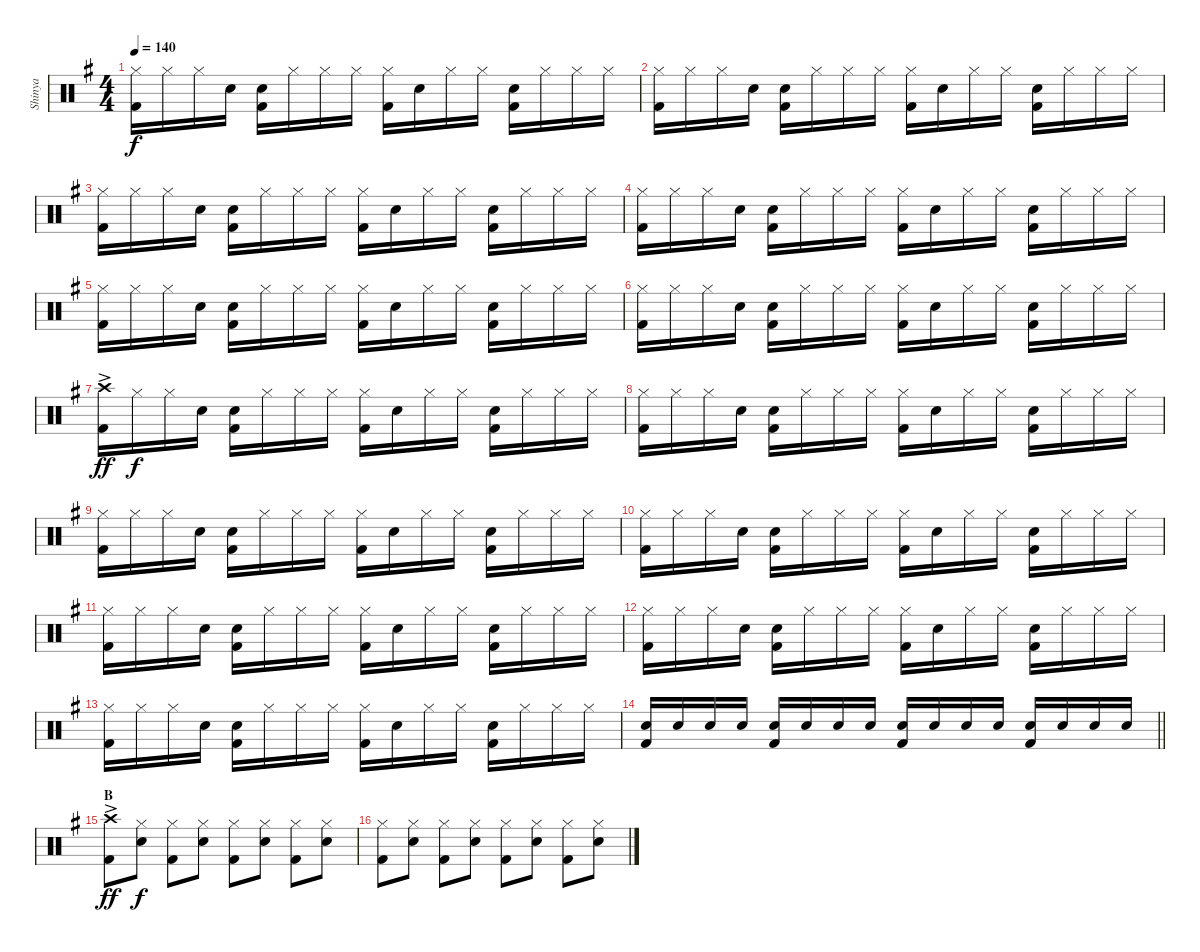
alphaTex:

\track ("Shinya" "Shinya") {instrument percussion}
\staff {score}
\articulation defaults
\ts (4 4)
\tempo 140
\clef neutral
\ks g
("Hi-Hat (closed)" "Kick (hit) 2").16{dy f} "Hi-Hat (closed)".16 "Hi-Hat (closed)".16 "Snare (hit) 2".16 ("Snare (hit) 2" "Kick (hit) 2").16 "Hi-Hat (closed)".16 "Hi-Hat (closed)".16 "Hi-Hat (closed)".16 ("Hi-Hat (closed)" "Kick (hit) 2").16 "Snare (hit) 2".16 "Hi-Hat (closed)".16 "Hi-Hat (closed)".16 ("Snare (hit) 2" "Kick (hit) 2").16 "Hi-Hat (closed)".16 "Hi-Hat (closed)".16 "Hi-Hat (closed)".16 |
("Hi-Hat (closed)" "Kick (hit) 2").16 "Hi-Hat (closed)".16 "Hi-Hat (closed)".16 "Snare (hit) 2".16 ("Snare (hit) 2" "Kick (hit) 2").16 "Hi-Hat (closed)".16 "Hi-Hat (closed)".16 "Hi-Hat (closed)".16 ("Hi-Hat (closed)" "Kick (hit) 2").16 "Snare (hit) 2".16 "Hi-Hat (closed)".16 "Hi-Hat (closed)".16 ("Snare (hit) 2" "Kick (hit) 2").16 "Hi-Hat (closed)".16 "Hi-Hat (closed)".16 "Hi-Hat (closed)".16 |
("Hi-Hat (closed)" "Kick (hit) 2").16 "Hi-Hat (closed)".16 "Hi-Hat (closed)".16 "Snare (hit) 2".16 ("Snare (hit) 2" "Kick (hit) 2").16 "Hi-Hat (closed)".16 "Hi-Hat (closed)".16 "Hi-Hat (closed)".16 ("Hi-Hat (closed)" "Kick (hit) 2").16 "Snare (hit) 2".16 "Hi-Hat (closed)".16 "Hi-Hat (closed)".16 ("Snare (hit) 2" "Kick (hit) 2").16 "Hi-Hat (closed)".16 "Hi-Hat (closed)".16 "Hi-Hat (closed)".16 |
("Hi-Hat (closed)" "Kick (hit) 2").16 "Hi-Hat (closed)".16 "Hi-Hat (closed)".16 "Snare (hit) 2".16 ("Snare (hit) 2" "Kick (hit) 2").16 "Hi-Hat (closed)".16 "Hi-Hat (closed)".16 "Hi-Hat (closed)".16 ("Hi-Hat (closed)" "Kick (hit) 2").16 "Snare (hit) 2".16 "Hi-Hat (closed)".16 "Hi-Hat (closed)".16 ("Snare (hit) 2" "Kick (hit) 2").16 "Hi-Hat (closed)".16 "Hi-Hat (closed)".16 "Hi-Hat (closed)".16 |
("Hi-Hat (closed)" "Kick (hit) 2").16 "Hi-Hat (closed)".16 "Hi-Hat (closed)".16 "Snare (hit) 2".16 ("Snare (hit) 2" "Kick (hit) 2").16 "Hi-Hat (closed)".16 "Hi-Hat (closed)".16 "Hi-Hat (closed)".16 ("Hi-Hat (closed)" "Kick (hit) 2").16 "Snare (hit) 2".16 "Hi-Hat (closed)".16 "Hi-Hat (closed)".16 ("Snare (hit) 2" "Kick (hit) 2").16 "Hi-Hat (closed)".16 "Hi-Hat (closed)".16 "Hi-Hat (closed)".16 |
("Hi-Hat (closed)" "Kick (hit) 2").16 "Hi-Hat (closed)".16 "Hi-Hat (closed)".16 "Snare (hit) 2".16 ("Snare (hit) 2" "Kick (hit) 2").16 "Hi-Hat (closed)".16 "Hi-Hat (closed)".16 "Hi-Hat (closed)".16 ("Hi-Hat (closed)" "Kick (hit) 2").16 "Snare (hit) 2".16 "Hi-Hat (closed)".16 "Hi-Hat (closed)".16 ("Snare (hit) 2" "Kick (hit) 2").16 "Hi-Hat (closed)".16 "Hi-Hat (closed)".16 "Hi-Hat (closed)".16 |
("Crash high (hit)"{ac} "Kick (hit) 2").16{dy ff} "Hi-Hat (closed)".16{dy f} "Hi-Hat (closed)".16 "Snare (hit) 2".16 ("Snare (hit) 2" "Kick (hit) 2").16 "Hi-Hat (closed)".16 "Hi-Hat (closed)".16 "Hi-Hat (closed)".16 ("Hi-Hat (closed)" "Kick (hit) 2").16 "Snare (hit) 2".16 "Hi-Hat (closed)".16 "Hi-Hat (closed)".16 ("Snare (hit) 2" "Kick (hit) 2").16 "Hi-Hat (closed)".16 "Hi-Hat (closed)".16 "Hi-Hat (closed)".16 |
("Hi-Hat (closed)" "Kick (hit) 2").16 "Hi-Hat (closed)".16 "Hi-Hat (closed)".16 "Snare (hit) 2".16 ("Snare (hit) 2" "Kick (hit) 2").16 "Hi-Hat (closed)".16 "Hi-Hat (closed)".16 "Hi-Hat (closed)".16 ("Hi-Hat (closed)" "Kick (hit) 2").16 "Snare (hit) 2".16 "Hi-Hat (closed)".16 "Hi-Hat (closed)".16 ("Snare (hit) 2" "Kick (hit) 2").16 "Hi-Hat (closed)".16 "Hi-Hat (closed)".16 "Hi-Hat (closed)".16 |
("Hi-Hat (closed)" "Kick (hit) 2").16 "Hi-Hat (closed)".16 "Hi-Hat (closed)".16 "Snare (hit) 2".16 ("Snare (hit) 2" "Kick (hit) 2").16 "Hi-Hat (closed)".16 "Hi-Hat (closed)".16 "Hi-Hat (closed)".16 ("Hi-Hat (closed)" "Kick (hit) 2").16 "Snare (hit) 2".16 "Hi-Hat (closed)".16 "Hi-Hat (closed)".16 ("Snare (hit) 2" "Kick (hit) 2").16 "Hi-Hat (closed)".16 "Hi-Hat (closed)".16 "Hi-Hat (closed)".16 |
("Hi-Hat (closed)" "Kick (hit) 2").16 "Hi-Hat (closed)".16 "Hi-Hat (closed)".16 "Snare (hit) 2".16 ("Snare (hit) 2" "Kick (hit) 2").16 "Hi-Hat (closed)".16 "Hi-Hat (closed)".16 "Hi-Hat (closed)".16 ("Hi-Hat (closed)" "Kick (hit) 2").16 "Snare (hit) 2".16 "Hi-Hat (closed)".16 "Hi-Hat (closed)".16 ("Snare (hit) 2" "Kick (hit) 2").16 "Hi-Hat (closed)".16 "Hi-Hat (closed)".16 "Hi-Hat (closed)".16 |
("Hi-Hat (closed)" "Kick (hit) 2").16 "Hi-Hat (closed)".16 "Hi-Hat (closed)".16 "Snare (hit) 2".16 ("Snare (hit) 2" "Kick (hit) 2").16 "Hi-Hat (closed)".16 "Hi-Hat (closed)".16 "Hi-Hat (closed)".16 ("Hi-Hat (closed)" "Kick (hit) 2").16 "Snare (hit) 2".16 "Hi-Hat (closed)".16 "Hi-Hat (closed)".16 ("Snare (hit) 2" "Kick (hit) 2").16 "Hi-Hat (closed)".16 "Hi-Hat (closed)".16 "Hi-Hat (closed)".16 |
("Hi-Hat (closed)" "Kick (hit) 2").16 "Hi-Hat (closed)".16 "Hi-Hat (closed)".16 "Snare (hit) 2".16 ("Snare (hit) 2" "Kick (hit) 2").16 "Hi-Hat (closed)".16 "Hi-Hat (closed)".16 "Hi-Hat (closed)".16 ("Hi-Hat (closed)" "Kick (hit) 2").16 "Snare (hit) 2".16 "Hi-Hat (closed)".16 "Hi-Hat (closed)".16 ("Snare (hit) 2" "Kick (hit) 2").16 "Hi-Hat (closed)".16 "Hi-Hat (closed)".16 "Hi-Hat (closed)".16 |
("Hi-Hat (closed)" "Kick (hit) 2").16 "Hi-Hat (closed)".16 "Hi-Hat (closed)".16 "Snare (hit) 2".16 ("Snare (hit) 2" "Kick (hit) 2").16 "Hi-Hat (closed)".16 "Hi-Hat (closed)".16 "Hi-Hat (closed)".16 ("Hi-Hat (closed)" "Kick (hit) 2").16 "Snare (hit) 2".16 "Hi-Hat (closed)".16 "Hi-Hat (closed)".16 ("Snare (hit) 2" "Kick (hit) 2").16 "Hi-Hat (closed)".16 "Hi-Hat (closed)".16 "Hi-Hat (closed)".16 |
\barLineRight lightlight
("Snare (hit) 2" "Kick (hit) 2").16 "Snare (hit) 2".16 "Snare (hit) 2".16 "Snare (hit) 2".16 ("Snare (hit) 2" "Kick (hit) 2").16 "Snare (hit) 2".16 "Snare (hit) 2".16 "Snare (hit) 2".16 ("Snare (hit) 2" "Kick (hit) 2").16 "Snare (hit) 2".16 "Snare (hit) 2".16 "Snare (hit) 2".16 ("Snare (hit) 2" "Kick (hit) 2").16 "Snare (hit) 2".16 "Snare (hit) 2".16 "Snare (hit) 2".16 |
\section ("" "B")
("Crash high (hit)"{ac} "Kick (hit) 2").8{dy ff} ("Hi-Hat (closed)" "Snare (hit) 2").8{dy f} ("Hi-Hat (closed)" "Kick (hit) 2").8 ("Hi-Hat (closed)" "Snare (hit) 2").8 ("Hi-Hat (closed)" "Kick (hit) 2").8 ("Hi-Hat (closed)" "Snare (hit) 2").8 ("Hi-Hat (closed)" "Kick (hit) 2").8 ("Hi-Hat (closed)" "Snare (hit) 2").8 |
("Hi-Hat (closed)" "Kick (hit) 2").8 ("Hi-Hat (closed)" "Snare (hit) 2").8 ("Hi-Hat (closed)" "Kick (hit) 2").8 ("Hi-Hat (closed)" "Snare (hit) 2").8 ("Hi-Hat (closed)" "Kick (hit) 2").8 ("Hi-Hat (closed)" "Snare (hit) 2").8 ("Hi-Hat (closed)" "Kick (hit) 2").8 ("Hi-Hat (closed)" "Snare (hit) 2").8
